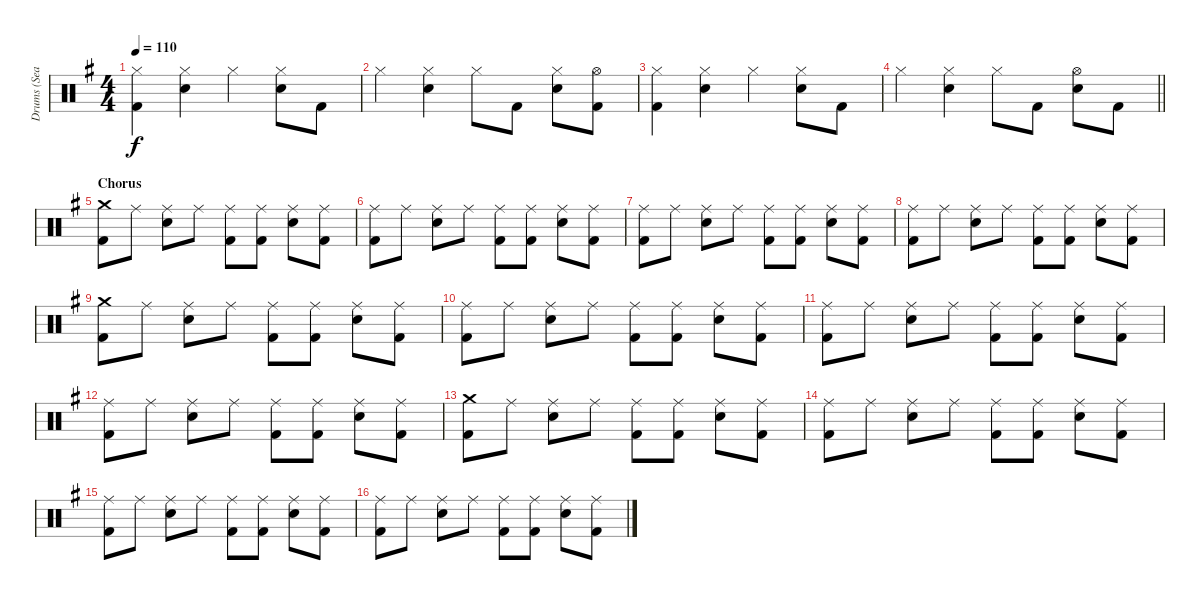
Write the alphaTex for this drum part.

\track ("Drums (Sean)" "Drums (Sea") {instrument percussion}
\staff {score}
\articulation defaults
\ts (4 4)
\tempo 110
\clef neutral
\ks g
("Hi-Hat (closed)" "Kick (hit) 2").4{dy f} ("Hi-Hat (closed)" "Snare (hit) 2").4 "Hi-Hat (closed)".4 ("Hi-Hat (closed)" "Snare (hit) 2").8 "Kick (hit) 2".8 |
"Hi-Hat (closed)".4 ("Hi-Hat (closed)" "Snare (hit) 2").4 "Hi-Hat (closed)".8 "Kick (hit) 2".8 ("Hi-Hat (closed)" "Snare (hit) 2").8 ("Hi-Hat (open)" "Kick (hit) 2").8 |
("Hi-Hat (closed)" "Kick (hit) 2").4 ("Hi-Hat (closed)" "Snare (hit) 2").4 "Hi-Hat (closed)".4 ("Hi-Hat (closed)" "Snare (hit) 2").8 "Kick (hit) 2".8 |
\barLineRight lightlight "Hi-Hat (closed)".4
("Hi-Hat (closed)" "Snare (hit) 2").4 "Hi-Hat (closed)".8 "Kick (hit) 2".8 ("Hi-Hat (open)" "Snare (hit) 2").8 "Kick (hit) 2".8 |
\section ("" "Chorus")
("Crash medium (hit)" "Kick (hit) 2").8 "Ride (middle)".8 ("Ride (middle)" "Snare (hit) 2").8 "Ride (middle)".8 ("Ride (middle)" "Kick (hit) 2").8 ("Ride (middle)" "Kick (hit) 2").8 ("Ride (middle)" "Snare (hit) 2").8 ("Ride (middle)" "Kick (hit) 2").8 |
("Ride (middle)" "Kick (hit) 2").8 "Ride (middle)".8 ("Ride (middle)" "Snare (hit) 2").8 "Ride (middle)".8 ("Ride (middle)" "Kick (hit) 2").8 ("Ride (middle)" "Kick (hit) 2").8 ("Ride (middle)" "Snare (hit) 2").8 ("Ride (middle)" "Kick (hit) 2").8 |
("Ride (middle)" "Kick (hit) 2").8 "Ride (middle)".8 ("Ride (middle)" "Snare (hit) 2").8 "Ride (middle)".8 ("Ride (middle)" "Kick (hit) 2").8 ("Ride (middle)" "Kick (hit) 2").8 ("Ride (middle)" "Snare (hit) 2").8 ("Ride (middle)" "Kick (hit) 2").8 |
("Ride (middle)" "Kick (hit) 2").8 "Ride (middle)".8 ("Ride (middle)" "Snare (hit) 2").8 "Ride (middle)".8 ("Ride (middle)" "Kick (hit) 2").8 ("Ride (middle)" "Kick (hit) 2").8 ("Ride (middle)" "Snare (hit) 2").8 ("Ride (middle)" "Kick (hit) 2").8 |
("Crash medium (hit)" "Kick (hit) 2").8 "Ride (middle)".8 ("Ride (middle)" "Snare (hit) 2").8 "Ride (middle)".8 ("Ride (middle)" "Kick (hit) 2").8 ("Ride (middle)" "Kick (hit) 2").8 ("Ride (middle)" "Snare (hit) 2").8 ("Ride (middle)" "Kick (hit) 2").8 |
("Ride (middle)" "Kick (hit) 2").8 "Ride (middle)".8 ("Ride (middle)" "Snare (hit) 2").8 "Ride (middle)".8 ("Ride (middle)" "Kick (hit) 2").8 ("Ride (middle)" "Kick (hit) 2").8 ("Ride (middle)" "Snare (hit) 2").8 ("Ride (middle)" "Kick (hit) 2").8 |
("Ride (middle)" "Kick (hit) 2").8 "Ride (middle)".8 ("Ride (middle)" "Snare (hit) 2").8 "Ride (middle)".8 ("Ride (middle)" "Kick (hit) 2").8 ("Ride (middle)" "Kick (hit) 2").8 ("Ride (middle)" "Snare (hit) 2").8 ("Ride (middle)" "Kick (hit) 2").8 |
("Ride (middle)" "Kick (hit) 2").8 "Ride (middle)".8 ("Ride (middle)" "Snare (hit) 2").8 "Ride (middle)".8 ("Ride (middle)" "Kick (hit) 2").8 ("Ride (middle)" "Kick (hit) 2").8 ("Ride (middle)" "Snare (hit) 2").8 ("Ride (middle)" "Kick (hit) 2").8 |
("Crash medium (hit)" "Kick (hit) 2").8 "Ride (middle)".8 ("Ride (middle)" "Snare (hit) 2").8 "Ride (middle)".8 ("Ride (middle)" "Kick (hit) 2").8 ("Ride (middle)" "Kick (hit) 2").8 ("Ride (middle)" "Snare (hit) 2").8 ("Ride (middle)" "Kick (hit) 2").8 |
("Ride (middle)" "Kick (hit) 2").8 "Ride (middle)".8 ("Ride (middle)" "Snare (hit) 2").8 "Ride (middle)".8 ("Ride (middle)" "Kick (hit) 2").8 ("Ride (middle)" "Kick (hit) 2").8 ("Ride (middle)" "Snare (hit) 2").8 ("Ride (middle)" "Kick (hit) 2").8 |
("Ride (middle)" "Kick (hit) 2").8 "Ride (middle)".8 ("Ride (middle)" "Snare (hit) 2").8 "Ride (middle)".8 ("Ride (middle)" "Kick (hit) 2").8 ("Ride (middle)" "Kick (hit) 2").8 ("Ride (middle)" "Snare (hit) 2").8 ("Ride (middle)" "Kick (hit) 2").8 |
("Ride (middle)" "Kick (hit) 2").8 "Ride (middle)".8 ("Ride (middle)" "Snare (hit) 2").8 "Ride (middle)".8 ("Ride (middle)" "Kick (hit) 2").8 ("Ride (middle)" "Kick (hit) 2").8 ("Ride (middle)" "Snare (hit) 2").8 ("Ride (middle)" "Kick (hit) 2").8
